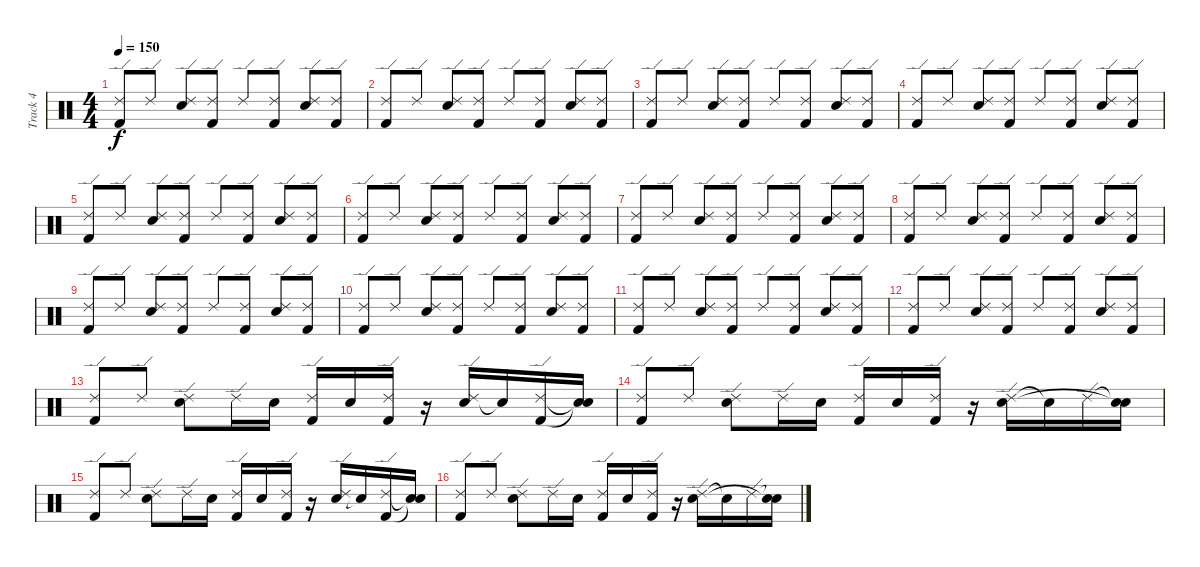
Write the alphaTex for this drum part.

\track ("Track 4" "Track 4") {instrument percussion}
\staff {score}
\articulation defaults
\ts (4 4)
\tempo 150
\clef neutral
\ks c
("Ride (edge) 2" "Kick (hit) 2").8{dy f} "Ride (edge) 2".8 ("Ride (edge) 2" "Snare (hit) 2").8 ("Ride (edge) 2" "Kick (hit) 2").8 "Ride (edge) 2".8 ("Ride (edge) 2" "Kick (hit) 2").8 ("Ride (edge) 2" "Snare (hit) 2").8 ("Ride (edge) 2" "Kick (hit) 2").8 |
("Ride (edge) 2" "Kick (hit) 2").8 "Ride (edge) 2".8 ("Ride (edge) 2" "Snare (hit) 2").8 ("Ride (edge) 2" "Kick (hit) 2").8 "Ride (edge) 2".8 ("Ride (edge) 2" "Kick (hit) 2").8 ("Ride (edge) 2" "Snare (hit) 2").8 ("Ride (edge) 2" "Kick (hit) 2").8 |
("Ride (edge) 2" "Kick (hit) 2").8 "Ride (edge) 2".8 ("Ride (edge) 2" "Snare (hit) 2").8 ("Ride (edge) 2" "Kick (hit) 2").8 "Ride (edge) 2".8 ("Ride (edge) 2" "Kick (hit) 2").8 ("Ride (edge) 2" "Snare (hit) 2").8 ("Ride (edge) 2" "Kick (hit) 2").8 |
("Ride (edge) 2" "Kick (hit) 2").8 "Ride (edge) 2".8 ("Ride (edge) 2" "Snare (hit) 2").8 ("Ride (edge) 2" "Kick (hit) 2").8 "Ride (edge) 2".8 ("Ride (edge) 2" "Kick (hit) 2").8 ("Ride (edge) 2" "Snare (hit) 2").8 ("Ride (edge) 2" "Kick (hit) 2").8 |
("Ride (edge) 2" "Kick (hit) 2").8 "Ride (edge) 2".8 ("Ride (edge) 2" "Snare (hit) 2").8 ("Ride (edge) 2" "Kick (hit) 2").8 "Ride (edge) 2".8 ("Ride (edge) 2" "Kick (hit) 2").8 ("Ride (edge) 2" "Snare (hit) 2").8 ("Ride (edge) 2" "Kick (hit) 2").8 |
("Ride (edge) 2" "Kick (hit) 2").8 "Ride (edge) 2".8 ("Ride (edge) 2" "Snare (hit) 2").8 ("Ride (edge) 2" "Kick (hit) 2").8 "Ride (edge) 2".8 ("Ride (edge) 2" "Kick (hit) 2").8 ("Ride (edge) 2" "Snare (hit) 2").8 ("Ride (edge) 2" "Kick (hit) 2").8 |
("Ride (edge) 2" "Kick (hit) 2").8 "Ride (edge) 2".8 ("Ride (edge) 2" "Snare (hit) 2").8 ("Ride (edge) 2" "Kick (hit) 2").8 "Ride (edge) 2".8 ("Ride (edge) 2" "Kick (hit) 2").8 ("Ride (edge) 2" "Snare (hit) 2").8 ("Ride (edge) 2" "Kick (hit) 2").8 |
("Ride (edge) 2" "Kick (hit) 2").8 "Ride (edge) 2".8 ("Ride (edge) 2" "Snare (hit) 2").8 ("Ride (edge) 2" "Kick (hit) 2").8 "Ride (edge) 2".8 ("Ride (edge) 2" "Kick (hit) 2").8 ("Ride (edge) 2" "Snare (hit) 2").8 ("Ride (edge) 2" "Kick (hit) 2").8 |
("Ride (edge) 2" "Kick (hit) 2").8 "Ride (edge) 2".8 ("Ride (edge) 2" "Snare (hit) 2").8 ("Ride (edge) 2" "Kick (hit) 2").8 "Ride (edge) 2".8 ("Ride (edge) 2" "Kick (hit) 2").8 ("Ride (edge) 2" "Snare (hit) 2").8 ("Ride (edge) 2" "Kick (hit) 2").8 |
("Ride (edge) 2" "Kick (hit) 2").8 "Ride (edge) 2".8 ("Ride (edge) 2" "Snare (hit) 2").8 ("Ride (edge) 2" "Kick (hit) 2").8 "Ride (edge) 2".8 ("Ride (edge) 2" "Kick (hit) 2").8 ("Ride (edge) 2" "Snare (hit) 2").8 ("Ride (edge) 2" "Kick (hit) 2").8 |
("Ride (edge) 2" "Kick (hit) 2").8 "Ride (edge) 2".8 ("Ride (edge) 2" "Snare (hit) 2").8 ("Ride (edge) 2" "Kick (hit) 2").8 "Ride (edge) 2".8 ("Ride (edge) 2" "Kick (hit) 2").8 ("Ride (edge) 2" "Snare (hit) 2").8 ("Ride (edge) 2" "Kick (hit) 2").8 |
("Ride (edge) 2" "Kick (hit) 2").8 "Ride (edge) 2".8 ("Ride (edge) 2" "Snare (hit) 2").8 ("Ride (edge) 2" "Kick (hit) 2").8 "Ride (edge) 2".8 ("Ride (edge) 2" "Kick (hit) 2").8 ("Ride (edge) 2" "Snare (hit) 2").8 ("Ride (edge) 2" "Kick (hit) 2").8 |
("Ride (edge) 2" "Kick (hit) 2").8 "Ride (edge) 2".8 ("Ride (edge) 2" "Snare (hit) 2").8 "Ride (edge) 2".16 "Snare (hit) 2".16 ("Ride (edge) 2" "Kick (hit) 2").16 "Snare (hit) 2".16 ("Ride (edge) 2" "Kick (hit) 2").16 r.16 ("Ride (edge) 2" "Snare (hit) 2").16 "Snare (hit)"{t}.16 ("Ride (edge) 2" "Kick (hit) 2").16 ("Snare (hit)"{t} "Snare (hit)"{t}).16 |
("Ride (edge) 2" "Kick (hit) 2").8 "Ride (edge) 2".8 ("Ride (edge) 2" "Snare (hit) 2").8 "Ride (edge) 2".16 "Snare (hit) 2".16 ("Ride (edge) 2" "Kick (hit) 2").16 "Snare (hit) 2".16 ("Ride (edge) 2" "Kick (hit) 2").16 r.16 ("Ride (edge) 2" "Snare (hit) 2").16 "Snare (hit)"{t}.16 "Ride (edge) 2".16 ("Snare (hit)"{t} "Snare (hit)"{t}).16 |
("Ride (edge) 2" "Kick (hit) 2").8 "Ride (edge) 2".8 ("Ride (edge) 2" "Snare (hit) 2").8 "Ride (edge) 2".16 "Snare (hit) 2".16 ("Ride (edge) 2" "Kick (hit) 2").16 "Snare (hit) 2".16 ("Ride (edge) 2" "Kick (hit) 2").16 r.16 ("Ride (edge) 2" "Snare (hit) 2").16 "Snare (hit)"{t}.16 ("Ride (edge) 2" "Kick (hit) 2").16 ("Snare (hit)"{t} "Snare (hit)"{t}).16 |
("Ride (edge) 2" "Kick (hit) 2").8 "Ride (edge) 2".8 ("Ride (edge) 2" "Snare (hit) 2").8 "Ride (edge) 2".16 "Snare (hit) 2".16 ("Ride (edge) 2" "Kick (hit) 2").16 "Snare (hit) 2".16 ("Ride (edge) 2" "Kick (hit) 2").16 r.16 ("Ride (edge) 2" "Snare (hit) 2").16 "Snare (hit)"{t}.16 "Ride (edge) 2".16 ("Snare (hit)"{t} "Snare (hit)"{t}).16
